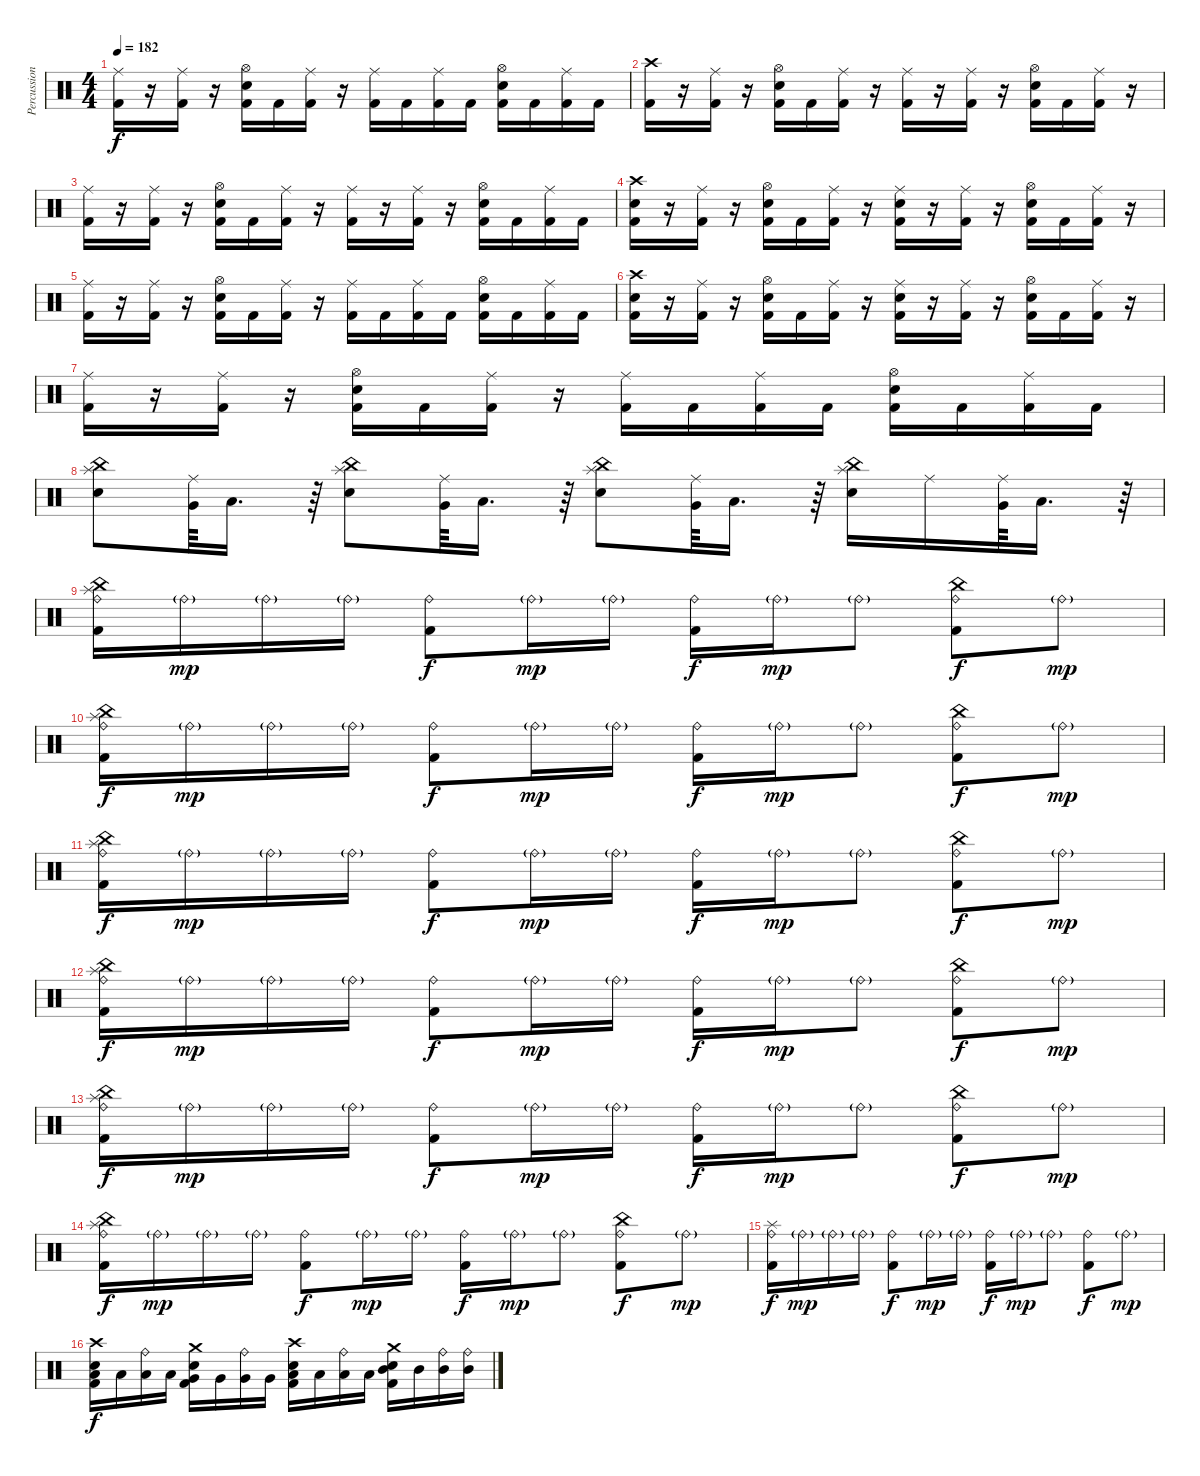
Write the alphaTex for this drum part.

\track ("Percussion" "Percussion") {instrument percussion}
\staff {score}
\articulation defaults
\ts (4 4)
\tempo 182
\clef neutral
\ks c
("Ride (middle)" "Kick (hit) 2").16{dy f} r.16 ("Ride (middle)" "Kick (hit) 2").16 r.16 ("Hi-Hat (open)" "Snare (hit) 2" "Kick (hit) 2").16 "Kick (hit) 2".16 ("Ride (middle)" "Kick (hit) 2").16 r.16 ("Ride (middle)" "Kick (hit) 2").16 "Kick (hit) 2".16 ("Ride (middle)" "Kick (hit) 2").16 "Kick (hit) 2".16 ("Hi-Hat (open)" "Snare (hit) 2" "Kick (hit) 2").16 "Kick (hit) 2".16 ("Ride (middle)" "Kick (hit) 2").16 "Kick (hit) 2".16 |
("Crash high (hit)" "Kick (hit) 2").16 r.16 ("Ride (middle)" "Kick (hit) 2").16 r.16 ("Hi-Hat (open)" "Snare (hit) 2" "Kick (hit) 2").16 "Kick (hit) 2".16 ("Ride (middle)" "Kick (hit) 2").16 r.16 ("Ride (middle)" "Kick (hit) 2").16 r.16 ("Ride (middle)" "Kick (hit) 2").16 r.16 ("Hi-Hat (open)" "Snare (hit) 2" "Kick (hit) 2").16 "Kick (hit) 2".16 ("Ride (middle)" "Kick (hit) 2").16 r.16 |
("Ride (middle)" "Kick (hit) 2").16 r.16 ("Ride (middle)" "Kick (hit) 2").16 r.16 ("Hi-Hat (open)" "Snare (hit) 2" "Kick (hit) 2").16 "Kick (hit) 2".16 ("Ride (middle)" "Kick (hit) 2").16 r.16 ("Ride (middle)" "Kick (hit) 2").16 r.16 ("Ride (middle)" "Kick (hit) 2").16 r.16 ("Hi-Hat (open)" "Snare (hit) 2" "Kick (hit) 2").16 "Kick (hit) 2".16 ("Ride (middle)" "Kick (hit) 2").16 "Kick (hit) 2".16 |
("Crash high (hit)" "Snare (hit) 2" "Kick (hit) 2").16 r.16 ("Ride (middle)" "Kick (hit) 2").16 r.16 ("Hi-Hat (open)" "Snare (hit) 2" "Kick (hit) 2").16 "Kick (hit) 2".16 ("Ride (middle)" "Kick (hit) 2").16 r.16 ("Ride (middle)" "Snare (hit) 2" "Kick (hit) 2").16 r.16 ("Ride (middle)" "Kick (hit) 2").16 r.16 ("Hi-Hat (open)" "Snare (hit) 2" "Kick (hit) 2").16 "Kick (hit) 2".16 ("Ride (middle)" "Kick (hit) 2").16 r.16 |
("Ride (middle)" "Kick (hit) 2").16 r.16 ("Ride (middle)" "Kick (hit) 2").16 r.16 ("Hi-Hat (open)" "Snare (hit) 2" "Kick (hit) 2").16 "Kick (hit) 2".16 ("Ride (middle)" "Kick (hit) 2").16 r.16 ("Ride (middle)" "Kick (hit) 2").16 "Kick (hit) 2".16 ("Ride (middle)" "Kick (hit) 2").16 "Kick (hit) 2".16 ("Hi-Hat (open)" "Snare (hit) 2" "Kick (hit) 2").16 "Kick (hit) 2".16 ("Ride (middle)" "Kick (hit) 2").16 "Kick (hit) 2".16 |
("Crash high (hit)" "Snare (hit) 2" "Kick (hit) 2").16 r.16 ("Ride (middle)" "Kick (hit) 2").16 r.16 ("Hi-Hat (open)" "Snare (hit) 2" "Kick (hit) 2").16 "Kick (hit) 2".16 ("Ride (middle)" "Kick (hit) 2").16 r.16 ("Ride (middle)" "Snare (hit) 2" "Kick (hit) 2").16 r.16 ("Ride (middle)" "Kick (hit) 2").16 r.16 ("Hi-Hat (open)" "Snare (hit) 2" "Kick (hit) 2").16 "Kick (hit) 2".16 ("Ride (middle)" "Kick (hit) 2").16 r.16 |
("Ride (middle)" "Kick (hit) 2").16 r.16 ("Ride (middle)" "Kick (hit) 2").16 r.16 ("Hi-Hat (open)" "Snare (hit) 2" "Kick (hit) 2").16 "Kick (hit) 2".16 ("Ride (middle)" "Kick (hit) 2").16 r.16 ("Ride (middle)" "Kick (hit) 2").16 "Kick (hit) 2".16 ("Ride (middle)" "Kick (hit) 2").16 "Kick (hit) 2".16 ("Hi-Hat (open)" "Snare (hit) 2" "Kick (hit) 2").16 "Kick (hit) 2".16 ("Ride (middle)" "Kick (hit) 2").16 "Kick (hit) 2".16 |
("Splash (hit)" "China (hit)" "Snare (hit) 2").8 ("Ride (middle)" "Very Low Tom (hit)").64 "Low Floor Tom (hit)".16{d} r.64 ("Splash (hit)" "China (hit)" "Snare (hit) 2").8 ("Ride (middle)" "Very Low Tom (hit)").64 "Low Floor Tom (hit)".16{d} r.64 ("Splash (hit)" "China (hit)" "Snare (hit) 2").8 ("Ride (middle)" "Very Low Tom (hit)").64 "Low Floor Tom (hit)".16{d} r.64 ("Splash (hit)" "China (hit)" "Snare (hit) 2").16 "Ride (middle)".16 ("Ride (middle)" "Very Low Tom (hit)").64 "Low Floor Tom (hit)".16{d} r.64 |
("Ride (bell)" "Splash (hit)" "China (hit)" "Kick (hit) 2").16 "Ride (bell)"{g}.16{dy mp} "Ride (bell)"{g}.16 "Ride (bell)"{g}.16 ("Ride (bell)" "Kick (hit) 2").8{dy f} "Ride (bell)"{g}.16{dy mp} "Ride (bell)"{g}.16 ("Ride (bell)" "Kick (hit) 2").16{dy f} "Ride (bell)"{g}.16{dy mp} "Ride (bell)"{g}.8 ("Ride (bell)" "China (hit)" "Kick (hit) 2").8{dy f} "Ride (bell)"{g}.8{dy mp} |
("Ride (bell)" "Splash (hit)" "China (hit)" "Kick (hit) 2").16{dy f} "Ride (bell)"{g}.16{dy mp} "Ride (bell)"{g}.16 "Ride (bell)"{g}.16 ("Ride (bell)" "Kick (hit) 2").8{dy f} "Ride (bell)"{g}.16{dy mp} "Ride (bell)"{g}.16 ("Ride (bell)" "Kick (hit) 2").16{dy f} "Ride (bell)"{g}.16{dy mp} "Ride (bell)"{g}.8 ("Ride (bell)" "China (hit)" "Kick (hit) 2").8{dy f} "Ride (bell)"{g}.8{dy mp} |
("Ride (bell)" "Splash (hit)" "China (hit)" "Kick (hit) 2").16{dy f} "Ride (bell)"{g}.16{dy mp} "Ride (bell)"{g}.16 "Ride (bell)"{g}.16 ("Ride (bell)" "Kick (hit) 2").8{dy f} "Ride (bell)"{g}.16{dy mp} "Ride (bell)"{g}.16 ("Ride (bell)" "Kick (hit) 2").16{dy f} "Ride (bell)"{g}.16{dy mp} "Ride (bell)"{g}.8 ("Ride (bell)" "China (hit)" "Kick (hit) 2").8{dy f} "Ride (bell)"{g}.8{dy mp} |
("Ride (bell)" "Splash (hit)" "China (hit)" "Kick (hit) 2").16{dy f} "Ride (bell)"{g}.16{dy mp} "Ride (bell)"{g}.16 "Ride (bell)"{g}.16 ("Ride (bell)" "Kick (hit) 2").8{dy f} "Ride (bell)"{g}.16{dy mp} "Ride (bell)"{g}.16 ("Ride (bell)" "Kick (hit) 2").16{dy f} "Ride (bell)"{g}.16{dy mp} "Ride (bell)"{g}.8 ("Ride (bell)" "China (hit)" "Kick (hit) 2").8{dy f} "Ride (bell)"{g}.8{dy mp} |
("Ride (bell)" "Splash (hit)" "China (hit)" "Kick (hit) 2").16{dy f} "Ride (bell)"{g}.16{dy mp} "Ride (bell)"{g}.16 "Ride (bell)"{g}.16 ("Ride (bell)" "Kick (hit) 2").8{dy f} "Ride (bell)"{g}.16{dy mp} "Ride (bell)"{g}.16 ("Ride (bell)" "Kick (hit) 2").16{dy f} "Ride (bell)"{g}.16{dy mp} "Ride (bell)"{g}.8 ("Ride (bell)" "China (hit)" "Kick (hit) 2").8{dy f} "Ride (bell)"{g}.8{dy mp} |
("Ride (bell)" "Splash (hit)" "China (hit)" "Kick (hit) 2").16{dy f} "Ride (bell)"{g}.16{dy mp} "Ride (bell)"{g}.16 "Ride (bell)"{g}.16 ("Ride (bell)" "Kick (hit) 2").8{dy f} "Ride (bell)"{g}.16{dy mp} "Ride (bell)"{g}.16 ("Ride (bell)" "Kick (hit) 2").16{dy f} "Ride (bell)"{g}.16{dy mp} "Ride (bell)"{g}.8 ("Ride (bell)" "China (hit)" "Kick (hit) 2").8{dy f} "Ride (bell)"{g}.8{dy mp} |
("Ride (bell)" "Splash (hit)" "Kick (hit) 2").16{dy f} "Ride (bell)"{g}.16{dy mp} "Ride (bell)"{g}.16 "Ride (bell)"{g}.16 ("Ride (bell)" "Kick (hit) 2").8{dy f} "Ride (bell)"{g}.16{dy mp} "Ride (bell)"{g}.16 ("Ride (bell)" "Kick (hit) 2").16{dy f} "Ride (bell)"{g}.16{dy mp} "Ride (bell)"{g}.8 ("Ride (bell)" "Kick (hit) 2").8{dy f} "Ride (bell)"{g}.8{dy mp} |
("Crash high (hit)" "Snare (hit) 2" "Low Floor Tom (hit)" "Kick (hit) 2").16{dy f} "Low Floor Tom (hit)".16 ("Ride (bell)" "Low Floor Tom (hit)").16 "Low Floor Tom (hit)".16 ("Crash medium (hit)" "Very Low Tom (hit)" "Snare (hit) 2" "Kick (hit) 2").16 "Very Low Tom (hit)".16 ("Ride (bell)" "Very Low Tom (hit)").16 "Very Low Tom (hit)".16 ("Crash high (hit)" "Low Tom (hit)" "Snare (hit) 2" "Kick (hit) 2").16 "Low Tom (hit)".16 ("Ride (bell)" "Low Tom (hit)").16 "Low Tom (hit)".16 ("Crash medium (hit)" "Mid Tom (hit)" "Snare (hit) 2" "Kick (hit) 2").16 "Mid Tom (hit)".16 ("Ride (bell)" "Mid Tom (hit)").16 ("Ride (bell)" "Mid Tom (hit)").16
